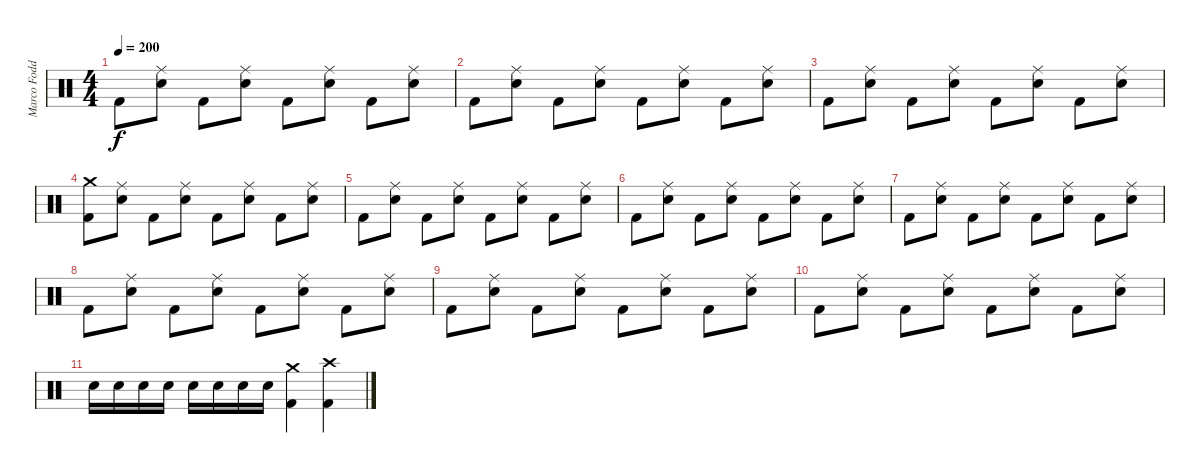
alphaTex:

\track ("Marco Foddis " "Marco Fodd") {instrument percussion}
\staff {score}
\articulation defaults
\ts (4 4)
\tempo 200
\clef neutral
\ks c "Kick (hit) 2".8{dy f}
("Ride (middle)" "Electric Snare (hit)").8 "Kick (hit) 2".8 ("Ride (middle)" "Electric Snare (hit)").8 "Kick (hit) 2".8 ("Ride (middle)" "Electric Snare (hit)").8 "Kick (hit) 2".8 ("Ride (middle)" "Electric Snare (hit)").8 |
"Kick (hit) 2".8 ("Ride (middle)" "Electric Snare (hit)").8 "Kick (hit) 2".8 ("Ride (middle)" "Electric Snare (hit)").8 "Kick (hit) 2".8 ("Ride (middle)" "Electric Snare (hit)").8 "Kick (hit) 2".8 ("Ride (middle)" "Electric Snare (hit)").8 |
"Kick (hit) 2".8 ("Ride (middle)" "Electric Snare (hit)").8 "Kick (hit) 2".8 ("Ride (middle)" "Electric Snare (hit)").8 "Kick (hit) 2".8 ("Ride (middle)" "Electric Snare (hit)").8 "Kick (hit) 2".8 ("Ride (middle)" "Electric Snare (hit)").8 |
("Crash medium (hit)" "Kick (hit) 2").8 ("Ride (middle)" "Electric Snare (hit)").8 "Kick (hit) 2".8 ("Ride (middle)" "Electric Snare (hit)").8 "Kick (hit) 2".8 ("Ride (middle)" "Electric Snare (hit)").8 "Kick (hit) 2".8 ("Ride (middle)" "Electric Snare (hit)").8 |
"Kick (hit) 2".8 ("Ride (middle)" "Electric Snare (hit)").8 "Kick (hit) 2".8 ("Ride (middle)" "Electric Snare (hit)").8 "Kick (hit) 2".8 ("Ride (middle)" "Electric Snare (hit)").8 "Kick (hit) 2".8 ("Ride (middle)" "Electric Snare (hit)").8 |
"Kick (hit) 2".8 ("Ride (middle)" "Electric Snare (hit)").8 "Kick (hit) 2".8 ("Ride (middle)" "Electric Snare (hit)").8 "Kick (hit) 2".8 ("Ride (middle)" "Electric Snare (hit)").8 "Kick (hit) 2".8 ("Ride (middle)" "Electric Snare (hit)").8 |
"Kick (hit) 2".8 ("Ride (middle)" "Electric Snare (hit)").8 "Kick (hit) 2".8 ("Ride (middle)" "Electric Snare (hit)").8 "Kick (hit) 2".8 ("Ride (middle)" "Electric Snare (hit)").8 "Kick (hit) 2".8 ("Ride (middle)" "Electric Snare (hit)").8 |
"Kick (hit) 2".8 ("Ride (middle)" "Electric Snare (hit)").8 "Kick (hit) 2".8 ("Ride (middle)" "Electric Snare (hit)").8 "Kick (hit) 2".8 ("Ride (middle)" "Electric Snare (hit)").8 "Kick (hit) 2".8 ("Ride (middle)" "Electric Snare (hit)").8 |
"Kick (hit) 2".8 ("Ride (middle)" "Electric Snare (hit)").8 "Kick (hit) 2".8 ("Ride (middle)" "Electric Snare (hit)").8 "Kick (hit) 2".8 ("Ride (middle)" "Electric Snare (hit)").8 "Kick (hit) 2".8 ("Ride (middle)" "Electric Snare (hit)").8 |
"Kick (hit) 2".8 ("Ride (middle)" "Electric Snare (hit)").8 "Kick (hit) 2".8 ("Ride (middle)" "Electric Snare (hit)").8 "Kick (hit) 2".8 ("Ride (middle)" "Electric Snare (hit)").8 "Kick (hit) 2".8 ("Ride (middle)" "Electric Snare (hit)").8 |
"Electric Snare (hit)".16 "Electric Snare (hit)".16 "Electric Snare (hit)".16 "Electric Snare (hit)".16 "Electric Snare (hit)".16 "Electric Snare (hit)".16 "Electric Snare (hit)".16 "Electric Snare (hit)".16 ("Crash medium (hit)" "Kick (hit) 2").4 ("Crash high (hit)" "Kick (hit) 2").4
